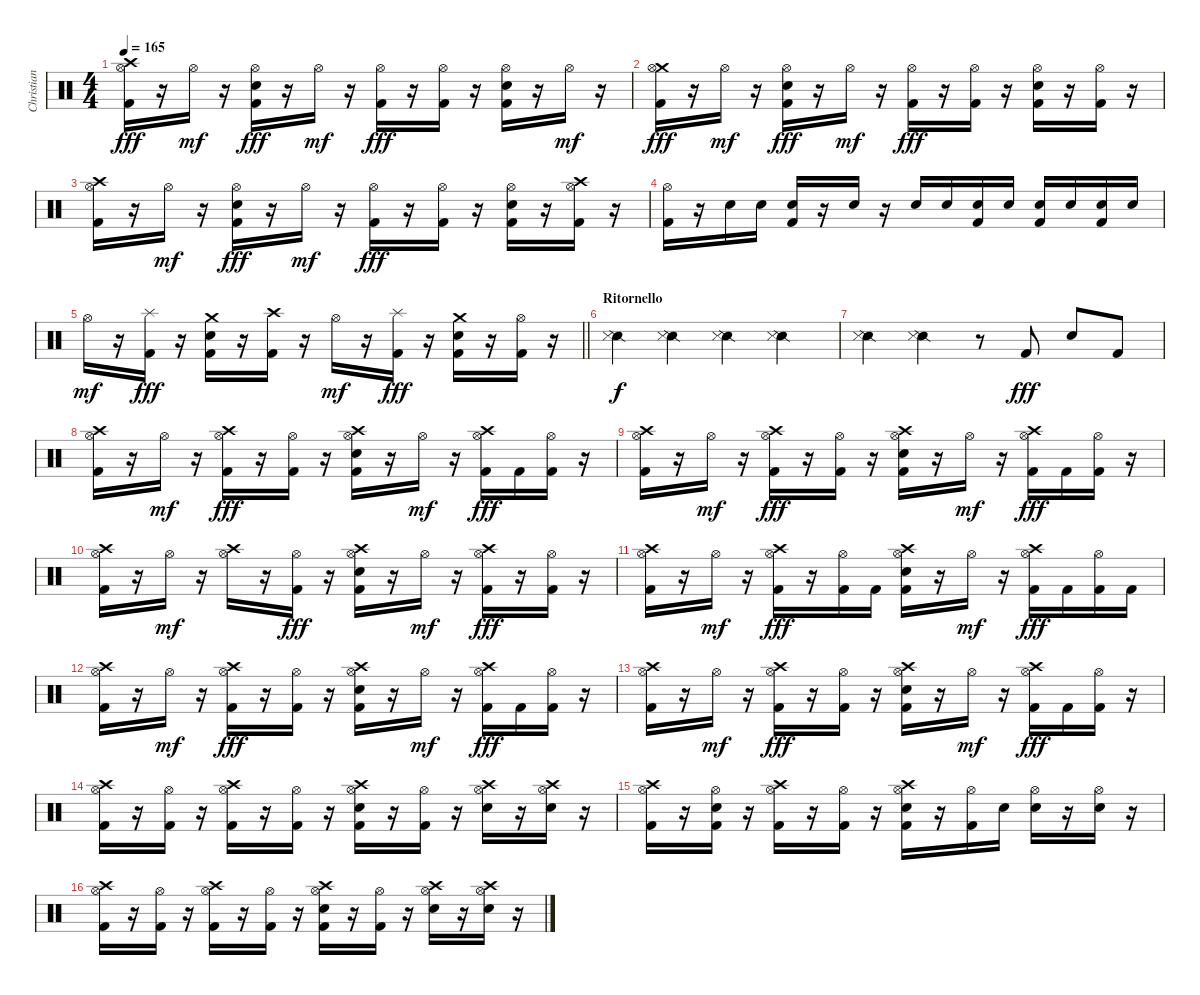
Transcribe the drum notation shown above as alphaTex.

\track ("Christian Coma Mora (CC)" "Christian ") {instrument percussion}
\staff {score}
\articulation defaults
\ts (4 4)
\tempo 165
\clef neutral
\ks c
("Crash high (hit)" "Hi-Hat (open)" "Kick (hit) 2").16{dy fff} r.16 "Hi-Hat (open)".16{dy mf} r.16 ("Hi-Hat (open)" "Snare (hit) 2" "Kick (hit) 2").16{dy fff} r.16 "Hi-Hat (open)".16{dy mf} r.16 ("Hi-Hat (open)" "Kick (hit) 2").16{dy fff} r.16 ("Hi-Hat (open)" "Kick (hit) 2").16 r.16 ("Hi-Hat (open)" "Snare (hit) 2" "Kick (hit) 2").16 r.16 "Hi-Hat (open)".16{dy mf} r.16 |
("Crash medium (hit)" "Hi-Hat (open)" "Kick (hit) 2").16{dy fff} r.16 "Hi-Hat (open)".16{dy mf} r.16 ("Hi-Hat (open)" "Snare (hit) 2" "Kick (hit) 2").16{dy fff} r.16 "Hi-Hat (open)".16{dy mf} r.16 ("Hi-Hat (open)" "Kick (hit) 2").16{dy fff} r.16 ("Hi-Hat (open)" "Kick (hit) 2").16 r.16 ("Hi-Hat (open)" "Snare (hit) 2" "Kick (hit) 2").16 r.16 ("Hi-Hat (open)" "Kick (hit) 2").16 r.16 |
("Crash high (hit)" "Hi-Hat (open)" "Kick (hit) 2").16 r.16 "Hi-Hat (open)".16{dy mf} r.16 ("Hi-Hat (open)" "Snare (hit) 2" "Kick (hit) 2").16{dy fff} r.16 "Hi-Hat (open)".16{dy mf} r.16 ("Hi-Hat (open)" "Kick (hit) 2").16{dy fff} r.16 ("Hi-Hat (open)" "Kick (hit) 2").16 r.16 ("Hi-Hat (open)" "Snare (hit) 2" "Kick (hit) 2").16 r.16 ("Crash high (hit)" "Hi-Hat (open)" "Kick (hit) 2").16 r.16 |
("Hi-Hat (open)" "Kick (hit) 2").16 r.16 "Snare (hit) 2".16 "Snare (hit) 2".16 ("Snare (hit) 2" "Kick (hit) 2").16 r.16 "Snare (hit) 2".16 r.16 "Snare (hit) 2".16 "Snare (hit) 2".16 ("Snare (hit) 2" "Kick (hit) 2").16 "Snare (hit) 2".16 ("Snare (hit) 2" "Kick (hit) 2").16 "Snare (hit) 2".16 ("Snare (hit) 2" "Kick (hit) 2").16 "Snare (hit) 2".16 |
\barLineRight lightlight "Hi-Hat (open)".16{dy mf}
r.16 ("Splash (hit)" "Kick (hit) 2").16{dy fff} r.16 ("Crash medium (hit)" "Snare (hit) 2" "Kick (hit) 2").16 r.16 ("Crash high (hit)" "Kick (hit) 2").16 r.16 "Hi-Hat (open)".16{dy mf} r.16 ("Splash (hit)" "Kick (hit) 2").16{dy fff} r.16 ("Crash medium (hit)" "Snare (hit) 2" "Kick (hit) 2").16 r.16 ("Hi-Hat (open)" "Kick (hit) 2").16 r.16 |
\section ("" "Ritornello")
("Snare (side stick) 2" "Metronome (hit)").4{dy f} ("Snare (side stick) 2" "Metronome (hit)").4 ("Snare (side stick) 2" "Metronome (hit)").4 ("Snare (side stick) 2" "Metronome (hit)").4 |
("Snare (side stick) 2" "Metronome (hit)").4 ("Snare (side stick) 2" "Metronome (hit)").4 r.8 "Kick (hit) 2".8{dy fff} "Snare (hit) 2".8 "Kick (hit) 2".8 |
("Crash high (hit)" "Hi-Hat (open)" "Kick (hit) 2").16 r.16 "Hi-Hat (open)".16{dy mf} r.16 ("Crash high (hit)" "Hi-Hat (open)" "Kick (hit) 2").16{dy fff} r.16 ("Hi-Hat (open)" "Kick (hit) 2").16 r.16 ("Crash high (hit)" "Hi-Hat (open)" "Snare (hit) 2" "Kick (hit) 2").16 r.16 "Hi-Hat (open)".16{dy mf} r.16 ("Crash high (hit)" "Hi-Hat (open)" "Kick (hit) 2").16{dy fff} "Kick (hit) 2".16 ("Hi-Hat (open)" "Kick (hit) 2").16 r.16 |
("Crash high (hit)" "Hi-Hat (open)" "Kick (hit) 2").16 r.16 "Hi-Hat (open)".16{dy mf} r.16 ("Crash high (hit)" "Hi-Hat (open)" "Kick (hit) 2").16{dy fff} r.16 ("Hi-Hat (open)" "Kick (hit) 2").16 r.16 ("Crash high (hit)" "Hi-Hat (open)" "Snare (hit) 2" "Kick (hit) 2").16 r.16 "Hi-Hat (open)".16{dy mf} r.16 ("Crash high (hit)" "Hi-Hat (open)" "Kick (hit) 2").16{dy fff} "Kick (hit) 2".16 ("Hi-Hat (open)" "Kick (hit) 2").16 r.16 |
("Crash high (hit)" "Hi-Hat (open)" "Kick (hit) 2").16 r.16 "Hi-Hat (open)".16{dy mf} r.16 ("Crash high (hit)" "Hi-Hat (open)").16 r.16 ("Hi-Hat (open)" "Kick (hit) 2").16{dy fff} r.16 ("Crash high (hit)" "Hi-Hat (open)" "Snare (hit) 2" "Kick (hit) 2").16 r.16 "Hi-Hat (open)".16{dy mf} r.16 ("Crash high (hit)" "Hi-Hat (open)" "Kick (hit) 2").16{dy fff} r.16 ("Hi-Hat (open)" "Kick (hit) 2").16 r.16 |
("Crash high (hit)" "Hi-Hat (open)" "Kick (hit) 2").16 r.16 "Hi-Hat (open)".16{dy mf} r.16 ("Crash high (hit)" "Hi-Hat (open)" "Kick (hit) 2").16{dy fff} r.16 ("Hi-Hat (open)" "Kick (hit) 2").16 "Kick (hit) 2".16 ("Crash high (hit)" "Hi-Hat (open)" "Snare (hit) 2" "Kick (hit) 2").16 r.16 "Hi-Hat (open)".16{dy mf} r.16 ("Crash high (hit)" "Hi-Hat (open)" "Kick (hit) 2").16{dy fff} "Kick (hit) 2".16 ("Hi-Hat (open)" "Kick (hit) 2").16 "Kick (hit) 2".16 |
("Crash high (hit)" "Hi-Hat (open)" "Kick (hit) 2").16 r.16 "Hi-Hat (open)".16{dy mf} r.16 ("Crash high (hit)" "Hi-Hat (open)" "Kick (hit) 2").16{dy fff} r.16 ("Hi-Hat (open)" "Kick (hit) 2").16 r.16 ("Crash high (hit)" "Hi-Hat (open)" "Snare (hit) 2" "Kick (hit) 2").16 r.16 "Hi-Hat (open)".16{dy mf} r.16 ("Crash high (hit)" "Hi-Hat (open)" "Kick (hit) 2").16{dy fff} "Kick (hit) 2".16 ("Hi-Hat (open)" "Kick (hit) 2").16 r.16 |
("Crash high (hit)" "Hi-Hat (open)" "Kick (hit) 2").16 r.16 "Hi-Hat (open)".16{dy mf} r.16 ("Crash high (hit)" "Hi-Hat (open)" "Kick (hit) 2").16{dy fff} r.16 ("Hi-Hat (open)" "Kick (hit) 2").16 r.16 ("Crash high (hit)" "Hi-Hat (open)" "Snare (hit) 2" "Kick (hit) 2").16 r.16 "Hi-Hat (open)".16{dy mf} r.16 ("Crash high (hit)" "Hi-Hat (open)" "Kick (hit) 2").16{dy fff} "Kick (hit) 2".16 ("Hi-Hat (open)" "Kick (hit) 2").16 r.16 |
("Crash high (hit)" "Hi-Hat (open)" "Kick (hit) 2").16 r.16 ("Hi-Hat (open)" "Kick (hit) 2").16 r.16 ("Crash high (hit)" "Hi-Hat (open)" "Kick (hit) 2").16 r.16 ("Hi-Hat (open)" "Kick (hit) 2").16 r.16 ("Crash high (hit)" "Hi-Hat (open)" "Snare (hit) 2" "Kick (hit) 2").16 r.16 ("Hi-Hat (open)" "Kick (hit) 2").16 r.16 ("Crash high (hit)" "Hi-Hat (open)" "Snare (hit) 2").16 r.16 ("Crash high (hit)" "Hi-Hat (open)" "Snare (hit) 2").16 r.16 |
("Crash high (hit)" "Hi-Hat (open)" "Kick (hit) 2").16 r.16 ("Hi-Hat (open)" "Snare (hit) 2" "Kick (hit) 2").16 r.16 ("Crash high (hit)" "Hi-Hat (open)" "Kick (hit) 2").16 r.16 ("Hi-Hat (open)" "Kick (hit) 2").16 r.16 ("Crash high (hit)" "Hi-Hat (open)" "Snare (hit) 2" "Kick (hit) 2").16 r.16 ("Hi-Hat (open)" "Kick (hit) 2").16 "Snare (hit) 2".16 ("Hi-Hat (open)" "Snare (hit) 2").16 r.16 ("Hi-Hat (open)" "Snare (hit) 2").16 r.16 |
("Crash high (hit)" "Hi-Hat (open)" "Kick (hit) 2").16 r.16 ("Hi-Hat (open)" "Kick (hit) 2").16 r.16 ("Crash high (hit)" "Hi-Hat (open)" "Kick (hit) 2").16 r.16 ("Hi-Hat (open)" "Kick (hit) 2").16 r.16 ("Crash high (hit)" "Hi-Hat (open)" "Snare (hit) 2" "Kick (hit) 2").16 r.16 ("Hi-Hat (open)" "Kick (hit) 2").16 r.16 ("Crash high (hit)" "Hi-Hat (open)" "Snare (hit) 2").16 r.16 ("Crash high (hit)" "Hi-Hat (open)" "Snare (hit) 2").16 r.16
